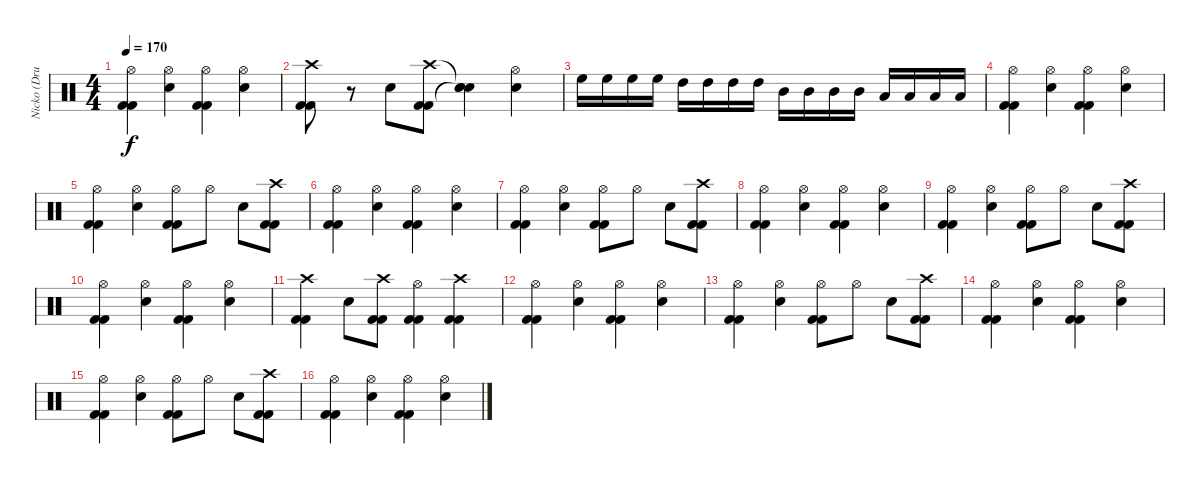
\track ("Nicko (Drums)" "Nicko (Dru") {instrument percussion}
\staff {score}
\articulation defaults
\ts (4 4)
\tempo 170
\clef neutral
\ks c
("Hi-Hat (open)" "Kick (hit) 2" "Kick (hit) 2").4{dy f} ("Hi-Hat (open)" "Snare (hit) 2").4 ("Hi-Hat (open)" "Kick (hit) 2" "Kick (hit) 2").4 ("Hi-Hat (open)" "Snare (hit) 2").4 |
("Crash high (hit)" "Kick (hit) 2" "Kick (hit) 2").8 r.8 "Snare (hit) 2".8 ("Crash high (hit)" "Kick (hit) 2" "Kick (hit) 2").8 ("Snare (hit)"{t} "Snare (hit)"{t} "Snare (hit)"{t}).4 ("Hi-Hat (open)" "Snare (hit) 2").4 |
"High Floor Tom (hit)".16 "High Floor Tom (hit)".16 "High Floor Tom (hit)".16 "High Floor Tom (hit)".16 "High Tom (hit)".16 "High Tom (hit)".16 "High Tom (hit)".16 "High Tom (hit)".16 "Mid Tom (hit)".16 "Mid Tom (hit)".16 "Mid Tom (hit)".16 "Mid Tom (hit)".16 "Low Tom (hit)".16 "Low Tom (hit)".16 "Low Tom (hit)".16 "Low Tom (hit)".16 |
("Hi-Hat (open)" "Kick (hit) 2" "Kick (hit) 2").4 ("Hi-Hat (open)" "Snare (hit) 2").4 ("Hi-Hat (open)" "Kick (hit) 2" "Kick (hit) 2").4 ("Hi-Hat (open)" "Snare (hit) 2").4 |
("Hi-Hat (open)" "Kick (hit) 2" "Kick (hit) 2").4 ("Hi-Hat (open)" "Snare (hit) 2").4 ("Hi-Hat (open)" "Kick (hit) 2" "Kick (hit) 2").8 "Hi-Hat (open)".8 "Snare (hit) 2".8 ("Crash high (hit)" "Kick (hit) 2" "Kick (hit) 2").8 |
("Hi-Hat (open)" "Kick (hit) 2" "Kick (hit) 2").4 ("Hi-Hat (open)" "Snare (hit) 2").4 ("Hi-Hat (open)" "Kick (hit) 2" "Kick (hit) 2").4 ("Hi-Hat (open)" "Snare (hit) 2").4 |
("Hi-Hat (open)" "Kick (hit) 2" "Kick (hit) 2").4 ("Hi-Hat (open)" "Snare (hit) 2").4 ("Hi-Hat (open)" "Kick (hit) 2" "Kick (hit) 2").8 "Hi-Hat (open)".8 "Snare (hit) 2".8 ("Crash high (hit)" "Kick (hit) 2" "Kick (hit) 2").8 |
("Hi-Hat (open)" "Kick (hit) 2" "Kick (hit) 2").4 ("Hi-Hat (open)" "Snare (hit) 2").4 ("Hi-Hat (open)" "Kick (hit) 2" "Kick (hit) 2").4 ("Hi-Hat (open)" "Snare (hit) 2").4 |
("Hi-Hat (open)" "Kick (hit) 2" "Kick (hit) 2").4 ("Hi-Hat (open)" "Snare (hit) 2").4 ("Hi-Hat (open)" "Kick (hit) 2" "Kick (hit) 2").8 "Hi-Hat (open)".8 "Snare (hit) 2".8 ("Crash high (hit)" "Kick (hit) 2" "Kick (hit) 2").8 |
("Hi-Hat (open)" "Kick (hit) 2" "Kick (hit) 2").4 ("Hi-Hat (open)" "Snare (hit) 2").4 ("Hi-Hat (open)" "Kick (hit) 2" "Kick (hit) 2").4 ("Hi-Hat (open)" "Snare (hit) 2").4 |
("Crash high (hit)" "Kick (hit) 2" "Kick (hit) 2").4 "Snare (hit) 2".8 ("Crash high (hit)" "Kick (hit) 2" "Kick (hit) 2").8 ("Hi-Hat (open)" "Kick (hit) 2" "Kick (hit) 2").4 ("Crash high (hit)" "Kick (hit) 2" "Kick (hit) 2").4 |
("Hi-Hat (open)" "Kick (hit) 2" "Kick (hit) 2").4 ("Hi-Hat (open)" "Snare (hit) 2").4 ("Hi-Hat (open)" "Kick (hit) 2" "Kick (hit) 2").4 ("Hi-Hat (open)" "Snare (hit) 2").4 |
("Hi-Hat (open)" "Kick (hit) 2" "Kick (hit) 2").4 ("Hi-Hat (open)" "Snare (hit) 2").4 ("Hi-Hat (open)" "Kick (hit) 2" "Kick (hit) 2").8 "Hi-Hat (open)".8 "Snare (hit) 2".8 ("Crash high (hit)" "Kick (hit) 2" "Kick (hit) 2").8 |
("Hi-Hat (open)" "Kick (hit) 2" "Kick (hit) 2").4 ("Hi-Hat (open)" "Snare (hit) 2").4 ("Hi-Hat (open)" "Kick (hit) 2" "Kick (hit) 2").4 ("Hi-Hat (open)" "Snare (hit) 2").4 |
("Hi-Hat (open)" "Kick (hit) 2" "Kick (hit) 2").4 ("Hi-Hat (open)" "Snare (hit) 2").4 ("Hi-Hat (open)" "Kick (hit) 2" "Kick (hit) 2").8 "Hi-Hat (open)".8 "Snare (hit) 2".8 ("Crash high (hit)" "Kick (hit) 2" "Kick (hit) 2").8 |
("Hi-Hat (open)" "Kick (hit) 2" "Kick (hit) 2").4 ("Hi-Hat (open)" "Snare (hit) 2").4 ("Hi-Hat (open)" "Kick (hit) 2" "Kick (hit) 2").4 ("Hi-Hat (open)" "Snare (hit) 2").4
